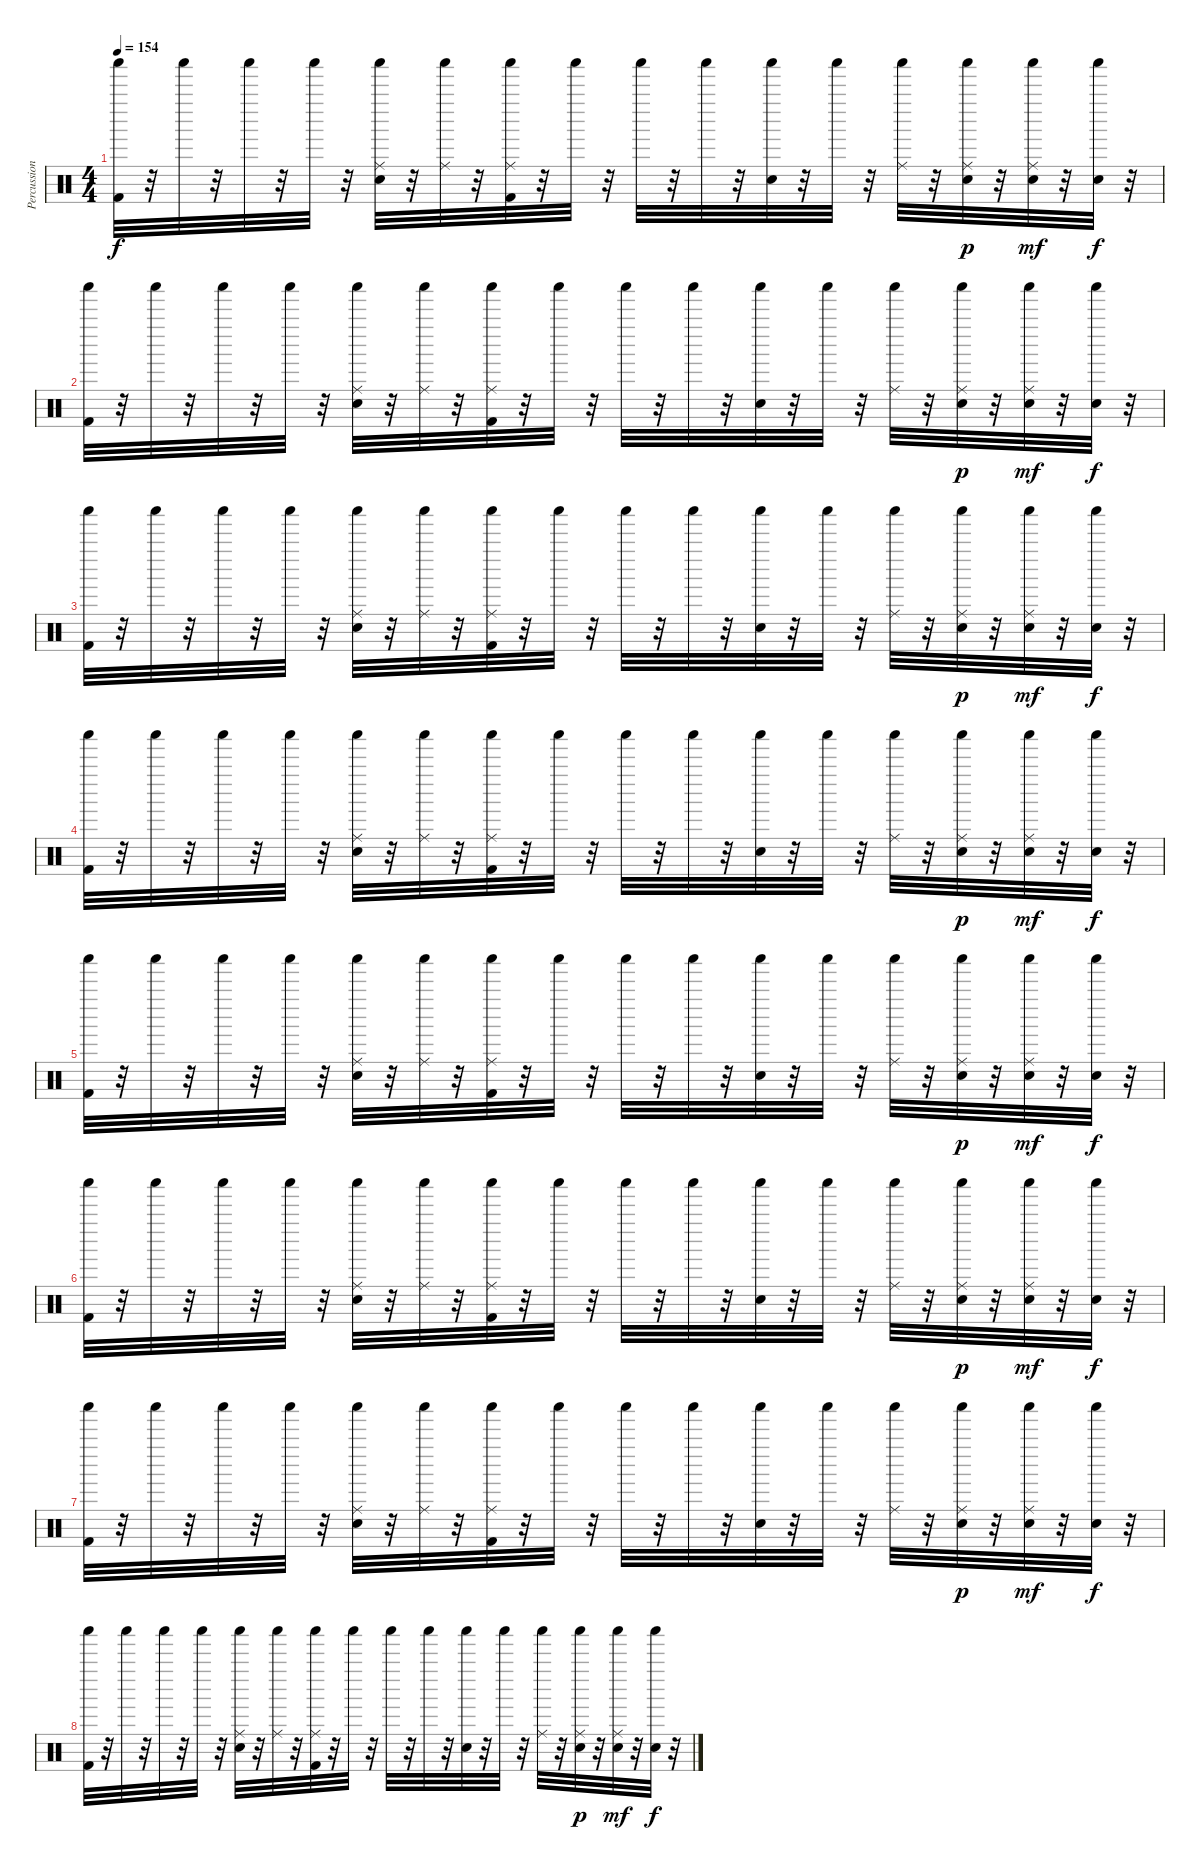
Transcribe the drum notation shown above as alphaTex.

\track ("Percussion" "Percussion") {instrument percussion}
\staff {score}
\articulation defaults
\ts (4 4)
\tempo 154
\clef neutral
\ks c
("Shaker (hit)" "Kick (hit) 2").32{dy f} r.32 "Shaker (hit)".32 r.32 "Shaker (hit)".32 r.32 "Shaker (hit)".32 r.32 ("Shaker (hit)" "Snare (hit) 2" "Ride (middle)").32 r.32 ("Shaker (hit)" "Ride (middle)").32 r.32 ("Shaker (hit)" "Kick (hit) 2" "Ride (middle)").32 r.32 "Shaker (hit)".32 r.32 "Shaker (hit)".32 r.32 "Shaker (hit)".32 r.32 ("Shaker (hit)" "Snare (hit) 2").32 r.32 "Shaker (hit)".32 r.32 ("Shaker (hit)" "Ride (middle)").32 r.32 ("Shaker (hit)" "Snare (hit) 2" "Ride (middle)").32{dy p} r.32 ("Shaker (hit)" "Snare (hit) 2" "Ride (middle)").32{dy mf} r.32 ("Shaker (hit)" "Snare (hit) 2").32{dy f} r.32 |
("Shaker (hit)" "Kick (hit) 2").32 r.32 "Shaker (hit)".32 r.32 "Shaker (hit)".32 r.32 "Shaker (hit)".32 r.32 ("Shaker (hit)" "Snare (hit) 2" "Ride (middle)").32 r.32 ("Shaker (hit)" "Ride (middle)").32 r.32 ("Shaker (hit)" "Kick (hit) 2" "Ride (middle)").32 r.32 "Shaker (hit)".32 r.32 "Shaker (hit)".32 r.32 "Shaker (hit)".32 r.32 ("Shaker (hit)" "Snare (hit) 2").32 r.32 "Shaker (hit)".32 r.32 ("Shaker (hit)" "Ride (middle)").32 r.32 ("Shaker (hit)" "Snare (hit) 2" "Ride (middle)").32{dy p} r.32 ("Shaker (hit)" "Snare (hit) 2" "Ride (middle)").32{dy mf} r.32 ("Shaker (hit)" "Snare (hit) 2").32{dy f} r.32 |
("Shaker (hit)" "Kick (hit) 2").32 r.32 "Shaker (hit)".32 r.32 "Shaker (hit)".32 r.32 "Shaker (hit)".32 r.32 ("Shaker (hit)" "Snare (hit) 2" "Ride (middle)").32 r.32 ("Shaker (hit)" "Ride (middle)").32 r.32 ("Shaker (hit)" "Kick (hit) 2" "Ride (middle)").32 r.32 "Shaker (hit)".32 r.32 "Shaker (hit)".32 r.32 "Shaker (hit)".32 r.32 ("Shaker (hit)" "Snare (hit) 2").32 r.32 "Shaker (hit)".32 r.32 ("Shaker (hit)" "Ride (middle)").32 r.32 ("Shaker (hit)" "Snare (hit) 2" "Ride (middle)").32{dy p} r.32 ("Shaker (hit)" "Snare (hit) 2" "Ride (middle)").32{dy mf} r.32 ("Shaker (hit)" "Snare (hit) 2").32{dy f} r.32 |
("Shaker (hit)" "Kick (hit) 2").32 r.32 "Shaker (hit)".32 r.32 "Shaker (hit)".32 r.32 "Shaker (hit)".32 r.32 ("Shaker (hit)" "Snare (hit) 2" "Ride (middle)").32 r.32 ("Shaker (hit)" "Ride (middle)").32 r.32 ("Shaker (hit)" "Kick (hit) 2" "Ride (middle)").32 r.32 "Shaker (hit)".32 r.32 "Shaker (hit)".32 r.32 "Shaker (hit)".32 r.32 ("Shaker (hit)" "Snare (hit) 2").32 r.32 "Shaker (hit)".32 r.32 ("Shaker (hit)" "Ride (middle)").32 r.32 ("Shaker (hit)" "Snare (hit) 2" "Ride (middle)").32{dy p} r.32 ("Shaker (hit)" "Snare (hit) 2" "Ride (middle)").32{dy mf} r.32 ("Shaker (hit)" "Snare (hit) 2").32{dy f} r.32 |
("Shaker (hit)" "Kick (hit) 2").32 r.32 "Shaker (hit)".32 r.32 "Shaker (hit)".32 r.32 "Shaker (hit)".32 r.32 ("Shaker (hit)" "Snare (hit) 2" "Ride (middle)").32 r.32 ("Shaker (hit)" "Ride (middle)").32 r.32 ("Shaker (hit)" "Kick (hit) 2" "Ride (middle)").32 r.32 "Shaker (hit)".32 r.32 "Shaker (hit)".32 r.32 "Shaker (hit)".32 r.32 ("Shaker (hit)" "Snare (hit) 2").32 r.32 "Shaker (hit)".32 r.32 ("Shaker (hit)" "Ride (middle)").32 r.32 ("Shaker (hit)" "Snare (hit) 2" "Ride (middle)").32{dy p} r.32 ("Shaker (hit)" "Snare (hit) 2" "Ride (middle)").32{dy mf} r.32 ("Shaker (hit)" "Snare (hit) 2").32{dy f} r.32 |
("Shaker (hit)" "Kick (hit) 2").32 r.32 "Shaker (hit)".32 r.32 "Shaker (hit)".32 r.32 "Shaker (hit)".32 r.32 ("Shaker (hit)" "Snare (hit) 2" "Ride (middle)").32 r.32 ("Shaker (hit)" "Ride (middle)").32 r.32 ("Shaker (hit)" "Kick (hit) 2" "Ride (middle)").32 r.32 "Shaker (hit)".32 r.32 "Shaker (hit)".32 r.32 "Shaker (hit)".32 r.32 ("Shaker (hit)" "Snare (hit) 2").32 r.32 "Shaker (hit)".32 r.32 ("Shaker (hit)" "Ride (middle)").32 r.32 ("Shaker (hit)" "Snare (hit) 2" "Ride (middle)").32{dy p} r.32 ("Shaker (hit)" "Snare (hit) 2" "Ride (middle)").32{dy mf} r.32 ("Shaker (hit)" "Snare (hit) 2").32{dy f} r.32 |
("Shaker (hit)" "Kick (hit) 2").32 r.32 "Shaker (hit)".32 r.32 "Shaker (hit)".32 r.32 "Shaker (hit)".32 r.32 ("Shaker (hit)" "Snare (hit) 2" "Ride (middle)").32 r.32 ("Shaker (hit)" "Ride (middle)").32 r.32 ("Shaker (hit)" "Kick (hit) 2" "Ride (middle)").32 r.32 "Shaker (hit)".32 r.32 "Shaker (hit)".32 r.32 "Shaker (hit)".32 r.32 ("Shaker (hit)" "Snare (hit) 2").32 r.32 "Shaker (hit)".32 r.32 ("Shaker (hit)" "Ride (middle)").32 r.32 ("Shaker (hit)" "Snare (hit) 2" "Ride (middle)").32{dy p} r.32 ("Shaker (hit)" "Snare (hit) 2" "Ride (middle)").32{dy mf} r.32 ("Shaker (hit)" "Snare (hit) 2").32{dy f} r.32 |
("Shaker (hit)" "Kick (hit) 2").32 r.32 "Shaker (hit)".32 r.32 "Shaker (hit)".32 r.32 "Shaker (hit)".32 r.32 ("Shaker (hit)" "Snare (hit) 2" "Ride (middle)").32 r.32 ("Shaker (hit)" "Ride (middle)").32 r.32 ("Shaker (hit)" "Kick (hit) 2" "Ride (middle)").32 r.32 "Shaker (hit)".32 r.32 "Shaker (hit)".32 r.32 "Shaker (hit)".32 r.32 ("Shaker (hit)" "Snare (hit) 2").32 r.32 "Shaker (hit)".32 r.32 ("Shaker (hit)" "Ride (middle)").32 r.32 ("Shaker (hit)" "Snare (hit) 2" "Ride (middle)").32{dy p} r.32 ("Shaker (hit)" "Snare (hit) 2" "Ride (middle)").32{dy mf} r.32 ("Shaker (hit)" "Snare (hit) 2").32{dy f} r.32
